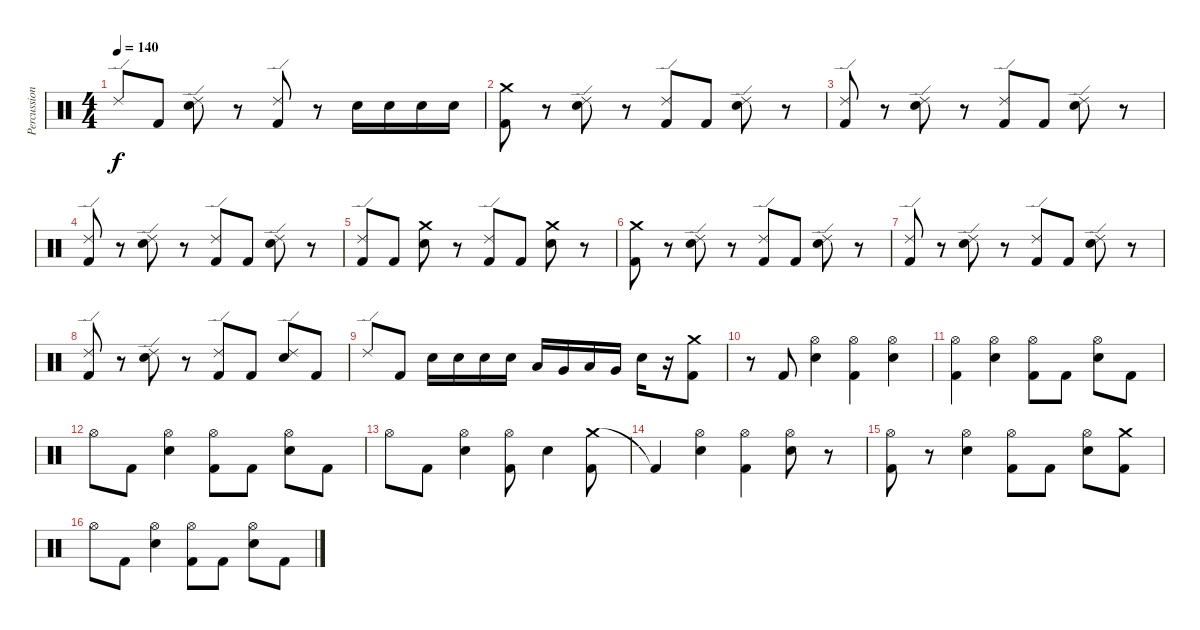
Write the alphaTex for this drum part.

\track ("Percussion" "Percussion") {instrument percussion}
\staff {score}
\articulation defaults
\ts (4 4)
\tempo 140
\clef neutral
\ks c "Ride (edge) 2".8{dy f} "Kick (hit) 2".8
("Ride (edge) 2" "Electric Snare (hit)").8 r.8 ("Ride (edge) 2" "Kick (hit) 2").8 r.8 "Electric Snare (hit)".16 "Electric Snare (hit)".16 "Electric Snare (hit)".16 "Electric Snare (hit)".16 |
("Crash medium (hit)" "Kick (hit) 2").8 r.8 ("Ride (edge) 2" "Electric Snare (hit)").8 r.8 ("Ride (edge) 2" "Kick (hit) 2").8 "Kick (hit) 2".8 ("Ride (edge) 2" "Electric Snare (hit)").8 r.8 |
("Ride (edge) 2" "Kick (hit) 2").8 r.8 ("Ride (edge) 2" "Electric Snare (hit)").8 r.8 ("Ride (edge) 2" "Kick (hit) 2").8 "Kick (hit) 2".8 ("Ride (edge) 2" "Electric Snare (hit)").8 r.8 |
("Ride (edge) 2" "Kick (hit) 2").8 r.8 ("Ride (edge) 2" "Electric Snare (hit)").8 r.8 ("Ride (edge) 2" "Kick (hit) 2").8 "Kick (hit) 2".8 ("Ride (edge) 2" "Electric Snare (hit)").8 r.8 |
("Ride (edge) 2" "Kick (hit) 2").8 "Kick (hit) 2".8 ("Crash medium (hit)" "Electric Snare (hit)").8 r.8 ("Ride (edge) 2" "Kick (hit) 2").8 "Kick (hit) 2".8 ("Crash medium (hit)" "Electric Snare (hit)").8 r.8 |
("Crash medium (hit)" "Kick (hit) 2").8 r.8 ("Ride (edge) 2" "Electric Snare (hit)").8 r.8 ("Ride (edge) 2" "Kick (hit) 2").8 "Kick (hit) 2".8 ("Ride (edge) 2" "Electric Snare (hit)").8 r.8 |
("Ride (edge) 2" "Kick (hit) 2").8 r.8 ("Ride (edge) 2" "Electric Snare (hit)").8 r.8 ("Ride (edge) 2" "Kick (hit) 2").8 "Kick (hit) 2".8 ("Ride (edge) 2" "Electric Snare (hit)").8 r.8 |
("Ride (edge) 2" "Kick (hit) 2").8 r.8 ("Ride (edge) 2" "Electric Snare (hit)").8 r.8 ("Ride (edge) 2" "Kick (hit) 2").8 "Kick (hit) 2".8 ("Ride (edge) 2" "Electric Snare (hit)").8 "Kick (hit) 2".8 |
"Ride (edge) 2".8 "Kick (hit) 2".8 "Electric Snare (hit)".16 "Electric Snare (hit)".16 "Electric Snare (hit)".16 "Electric Snare (hit)".16 "Low Tom (hit)".16 "Very Low Tom (hit)".16 "Low Floor Tom (hit)".16 "Very Low Tom (hit)".16 "Electric Snare (hit)".16 r.16 ("Crash medium (hit)" "Kick (hit) 2").8 |
r.8 "Kick (hit) 2".8 ("Hi-Hat (open)" "Electric Snare (hit)").4 ("Hi-Hat (open)" "Kick (hit) 2").4 ("Hi-Hat (open)" "Electric Snare (hit)").4 |
("Hi-Hat (open)" "Kick (hit) 2").4 ("Hi-Hat (open)" "Electric Snare (hit)").4 ("Hi-Hat (open)" "Kick (hit) 2").8 "Kick (hit) 2".8 ("Hi-Hat (open)" "Electric Snare (hit)").8 "Kick (hit) 2".8 |
"Hi-Hat (open)".8 "Kick (hit) 2".8 ("Hi-Hat (open)" "Electric Snare (hit)").4 ("Hi-Hat (open)" "Kick (hit) 2").8 "Kick (hit) 2".8 ("Hi-Hat (open)" "Electric Snare (hit)").8 "Kick (hit) 2".8 |
"Hi-Hat (open)".8 "Kick (hit) 2".8 ("Hi-Hat (open)" "Electric Snare (hit)").4 ("Hi-Hat (open)" "Kick (hit) 2").8 "Electric Snare (hit)".4 ("Crash medium (hit)" "Kick (hit) 2").8 |
"Kick (hit) 2"{t}.4 ("Hi-Hat (open)" "Electric Snare (hit)").4 ("Hi-Hat (open)" "Kick (hit) 2").4 ("Hi-Hat (open)" "Electric Snare (hit)").8 r.8 |
("Hi-Hat (open)" "Kick (hit) 2").8 r.8 ("Hi-Hat (open)" "Electric Snare (hit)").4 ("Hi-Hat (open)" "Kick (hit) 2").8 "Kick (hit) 2".8 ("Hi-Hat (open)" "Electric Snare (hit)").8 ("Crash medium (hit)" "Kick (hit) 2").8 |
"Hi-Hat (open)".8 "Kick (hit) 2".8 ("Hi-Hat (open)" "Electric Snare (hit)").4 ("Hi-Hat (open)" "Kick (hit) 2").8 "Kick (hit) 2".8 ("Hi-Hat (open)" "Electric Snare (hit)").8 "Kick (hit) 2".8
